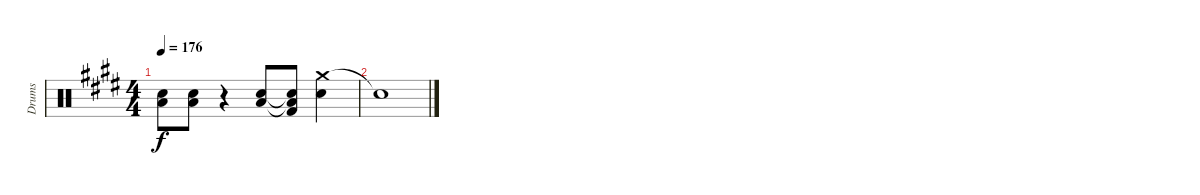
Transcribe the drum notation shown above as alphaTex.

\track ("Drums" "Drums") {instrument percussion}
\staff {score}
\articulation defaults
\ts (4 4)
\tempo 176
\clef neutral
\ks c#minor
("Electric Snare (hit)" "Low Floor Tom (hit)").8{dy f} ("Electric Snare (hit)" "Low Floor Tom (hit)").8 r.4 ("Electric Snare (hit)" "Low Floor Tom (hit)").8 ("Electric Snare (hit)"{t} "Low Floor Tom (hit)"{t} "Kick (hit) 2").8 ("Crash medium (hit)" "Electric Snare (hit)").4 |
"Snare (hit)"{t}.1
